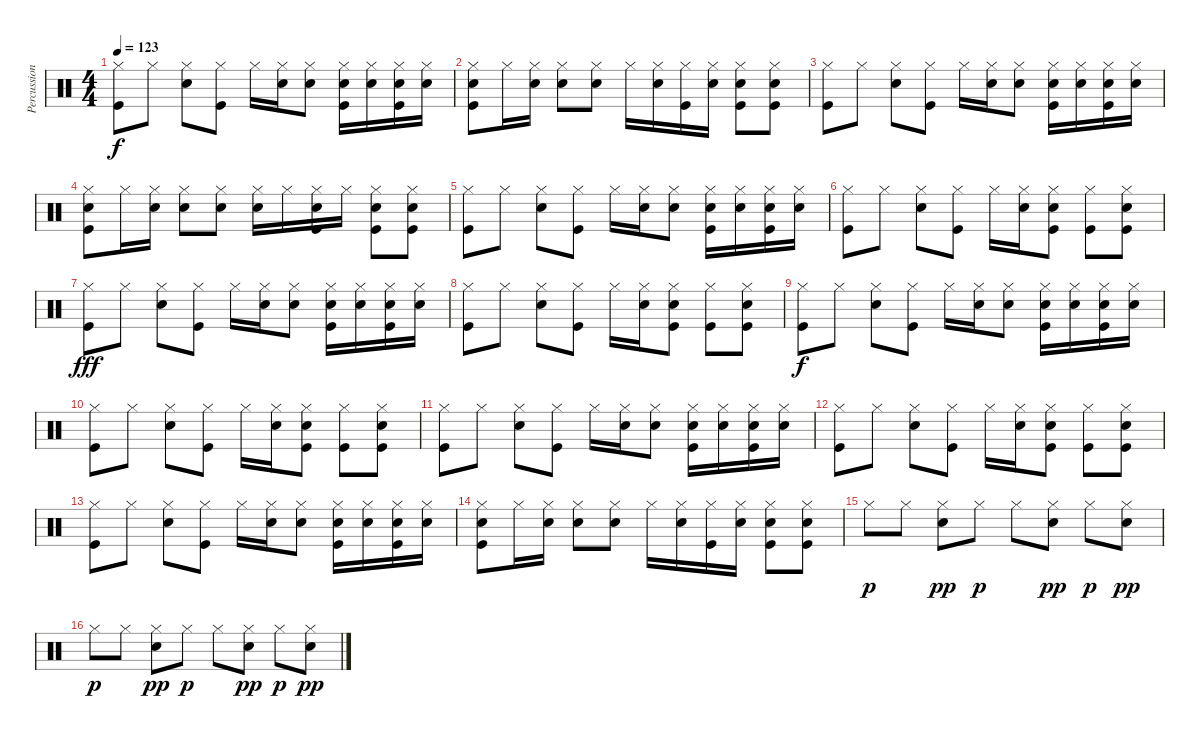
\track ("Percussion" "Percussion") {instrument percussion}
\staff {score}
\articulation defaults
\ts (4 4)
\tempo 123
\clef neutral
\ks c
("Hi-Hat (closed)" "Kick (hit)").8{dy f} "Hi-Hat (closed)".8 ("Hi-Hat (closed)" "Snare (hit) 2").8 ("Hi-Hat (closed)" "Kick (hit)").8 "Hi-Hat (closed)".16 ("Hi-Hat (closed)" "Snare (hit) 2").16 ("Hi-Hat (closed)" "Snare (hit) 2").8 ("Hi-Hat (closed)" "Snare (hit) 2" "Kick (hit)").16 ("Hi-Hat (closed)" "Snare (hit) 2").16 ("Hi-Hat (closed)" "Snare (hit) 2" "Kick (hit)").16 ("Hi-Hat (closed)" "Snare (hit) 2").16 |
("Hi-Hat (closed)" "Snare (hit) 2" "Kick (hit)").8 "Hi-Hat (closed)".16 ("Hi-Hat (closed)" "Snare (hit) 2").16 ("Hi-Hat (closed)" "Snare (hit) 2").8 ("Hi-Hat (closed)" "Snare (hit) 2").8 "Hi-Hat (closed)".16 ("Hi-Hat (closed)" "Snare (hit) 2").16 ("Hi-Hat (closed)" "Kick (hit)").16 ("Hi-Hat (closed)" "Snare (hit) 2").16 ("Hi-Hat (closed)" "Snare (hit) 2" "Kick (hit)").8 ("Hi-Hat (closed)" "Snare (hit) 2" "Kick (hit)").8 |
("Hi-Hat (closed)" "Kick (hit)").8 "Hi-Hat (closed)".8 ("Hi-Hat (closed)" "Snare (hit) 2").8 ("Hi-Hat (closed)" "Kick (hit)").8 "Hi-Hat (closed)".16 ("Hi-Hat (closed)" "Snare (hit) 2").16 ("Hi-Hat (closed)" "Snare (hit) 2").8 ("Hi-Hat (closed)" "Snare (hit) 2" "Kick (hit)").16 ("Hi-Hat (closed)" "Snare (hit) 2").16 ("Hi-Hat (closed)" "Snare (hit) 2" "Kick (hit)").16 ("Hi-Hat (closed)" "Snare (hit) 2").16 |
("Hi-Hat (closed)" "Snare (hit) 2" "Kick (hit)").8 "Hi-Hat (closed)".16 ("Hi-Hat (closed)" "Snare (hit) 2").16 ("Hi-Hat (closed)" "Snare (hit) 2").8 ("Hi-Hat (closed)" "Snare (hit) 2").8 ("Hi-Hat (closed)" "Snare (hit) 2").16 "Hi-Hat (closed)".16 ("Hi-Hat (closed)" "Snare (hit) 2" "Kick (hit)").16 "Hi-Hat (closed)".16 ("Hi-Hat (closed)" "Snare (hit) 2" "Kick (hit)").8 ("Hi-Hat (closed)" "Snare (hit) 2" "Kick (hit)").8 |
("Hi-Hat (closed)" "Kick (hit)").8 "Hi-Hat (closed)".8 ("Hi-Hat (closed)" "Snare (hit) 2").8 ("Hi-Hat (closed)" "Kick (hit)").8 "Hi-Hat (closed)".16 ("Hi-Hat (closed)" "Snare (hit) 2").16 ("Hi-Hat (closed)" "Snare (hit) 2").8 ("Hi-Hat (closed)" "Snare (hit) 2" "Kick (hit)").16 ("Hi-Hat (closed)" "Snare (hit) 2").16 ("Hi-Hat (closed)" "Snare (hit) 2" "Kick (hit)").16 ("Hi-Hat (closed)" "Snare (hit) 2").16 |
("Hi-Hat (closed)" "Kick (hit)").8 "Hi-Hat (closed)".8 ("Hi-Hat (closed)" "Snare (hit) 2").8 ("Hi-Hat (closed)" "Kick (hit)").8 "Hi-Hat (closed)".16 ("Hi-Hat (closed)" "Snare (hit) 2").16 ("Hi-Hat (closed)" "Snare (hit) 2" "Kick (hit)").8 ("Hi-Hat (closed)" "Kick (hit)").8 ("Hi-Hat (closed)" "Snare (hit) 2" "Kick (hit)").8 |
("Hi-Hat (closed)" "Kick (hit)").8{dy fff} "Hi-Hat (closed)".8 ("Hi-Hat (closed)" "Snare (hit) 2").8 ("Hi-Hat (closed)" "Kick (hit)").8 "Hi-Hat (closed)".16 ("Hi-Hat (closed)" "Snare (hit) 2").16 ("Hi-Hat (closed)" "Snare (hit) 2").8 ("Hi-Hat (closed)" "Snare (hit) 2" "Kick (hit)").16 ("Hi-Hat (closed)" "Snare (hit) 2").16 ("Hi-Hat (closed)" "Snare (hit) 2" "Kick (hit)").16 ("Hi-Hat (closed)" "Snare (hit) 2").16 |
("Hi-Hat (closed)" "Kick (hit)").8 "Hi-Hat (closed)".8 ("Hi-Hat (closed)" "Snare (hit) 2").8 ("Hi-Hat (closed)" "Kick (hit)").8 "Hi-Hat (closed)".16 ("Hi-Hat (closed)" "Snare (hit) 2").16 ("Hi-Hat (closed)" "Snare (hit) 2" "Kick (hit)").8 ("Hi-Hat (closed)" "Kick (hit)").8 ("Hi-Hat (closed)" "Snare (hit) 2" "Kick (hit)").8 |
("Hi-Hat (closed)" "Kick (hit)").8{dy f} "Hi-Hat (closed)".8 ("Hi-Hat (closed)" "Snare (hit) 2").8 ("Hi-Hat (closed)" "Kick (hit)").8 "Hi-Hat (closed)".16 ("Hi-Hat (closed)" "Snare (hit) 2").16 ("Hi-Hat (closed)" "Snare (hit) 2").8 ("Hi-Hat (closed)" "Snare (hit) 2" "Kick (hit)").16 ("Hi-Hat (closed)" "Snare (hit) 2").16 ("Hi-Hat (closed)" "Snare (hit) 2" "Kick (hit)").16 ("Hi-Hat (closed)" "Snare (hit) 2").16 |
("Hi-Hat (closed)" "Kick (hit)").8 "Hi-Hat (closed)".8 ("Hi-Hat (closed)" "Snare (hit) 2").8 ("Hi-Hat (closed)" "Kick (hit)").8 "Hi-Hat (closed)".16 ("Hi-Hat (closed)" "Snare (hit) 2").16 ("Hi-Hat (closed)" "Snare (hit) 2" "Kick (hit)").8 ("Hi-Hat (closed)" "Kick (hit)").8 ("Hi-Hat (closed)" "Snare (hit) 2" "Kick (hit)").8 |
("Hi-Hat (closed)" "Kick (hit)").8 "Hi-Hat (closed)".8 ("Hi-Hat (closed)" "Snare (hit) 2").8 ("Hi-Hat (closed)" "Kick (hit)").8 "Hi-Hat (closed)".16 ("Hi-Hat (closed)" "Snare (hit) 2").16 ("Hi-Hat (closed)" "Snare (hit) 2").8 ("Hi-Hat (closed)" "Snare (hit) 2" "Kick (hit)").16 ("Hi-Hat (closed)" "Snare (hit) 2").16 ("Hi-Hat (closed)" "Snare (hit) 2" "Kick (hit)").16 ("Hi-Hat (closed)" "Snare (hit) 2").16 |
("Hi-Hat (closed)" "Kick (hit)").8 "Hi-Hat (closed)".8 ("Hi-Hat (closed)" "Snare (hit) 2").8 ("Hi-Hat (closed)" "Kick (hit)").8 "Hi-Hat (closed)".16 ("Hi-Hat (closed)" "Snare (hit) 2").16 ("Hi-Hat (closed)" "Snare (hit) 2" "Kick (hit)").8 ("Hi-Hat (closed)" "Kick (hit)").8 ("Hi-Hat (closed)" "Snare (hit) 2" "Kick (hit)").8 |
("Hi-Hat (closed)" "Kick (hit)").8 "Hi-Hat (closed)".8 ("Hi-Hat (closed)" "Snare (hit) 2").8 ("Hi-Hat (closed)" "Kick (hit)").8 "Hi-Hat (closed)".16 ("Hi-Hat (closed)" "Snare (hit) 2").16 ("Hi-Hat (closed)" "Snare (hit) 2").8 ("Hi-Hat (closed)" "Snare (hit) 2" "Kick (hit)").16 ("Hi-Hat (closed)" "Snare (hit) 2").16 ("Hi-Hat (closed)" "Snare (hit) 2" "Kick (hit)").16 ("Hi-Hat (closed)" "Snare (hit) 2").16 |
("Hi-Hat (closed)" "Snare (hit) 2" "Kick (hit)").8 "Hi-Hat (closed)".16 ("Hi-Hat (closed)" "Snare (hit) 2").16 ("Hi-Hat (closed)" "Snare (hit) 2").8 ("Hi-Hat (closed)" "Snare (hit) 2").8 "Hi-Hat (closed)".16 ("Hi-Hat (closed)" "Snare (hit) 2").16 ("Hi-Hat (closed)" "Kick (hit)").16 ("Hi-Hat (closed)" "Snare (hit) 2").16 ("Hi-Hat (closed)" "Snare (hit) 2" "Kick (hit)").8 ("Hi-Hat (closed)" "Snare (hit) 2" "Kick (hit)").8 |
"Hi-Hat (closed)".8{dy p} "Hi-Hat (closed)".8 ("Hi-Hat (closed)" "Snare (hit) 2").8{dy pp} "Hi-Hat (closed)".8{dy p} "Hi-Hat (closed)".8 ("Hi-Hat (closed)" "Snare (hit) 2").8{dy pp} "Hi-Hat (closed)".8{dy p} ("Hi-Hat (closed)" "Snare (hit) 2").8{dy pp} |
"Hi-Hat (closed)".8{dy p} "Hi-Hat (closed)".8 ("Hi-Hat (closed)" "Snare (hit) 2").8{dy pp} "Hi-Hat (closed)".8{dy p} "Hi-Hat (closed)".8 ("Hi-Hat (closed)" "Snare (hit) 2").8{dy pp} "Hi-Hat (closed)".8{dy p} ("Hi-Hat (closed)" "Snare (hit) 2").8{dy pp}
